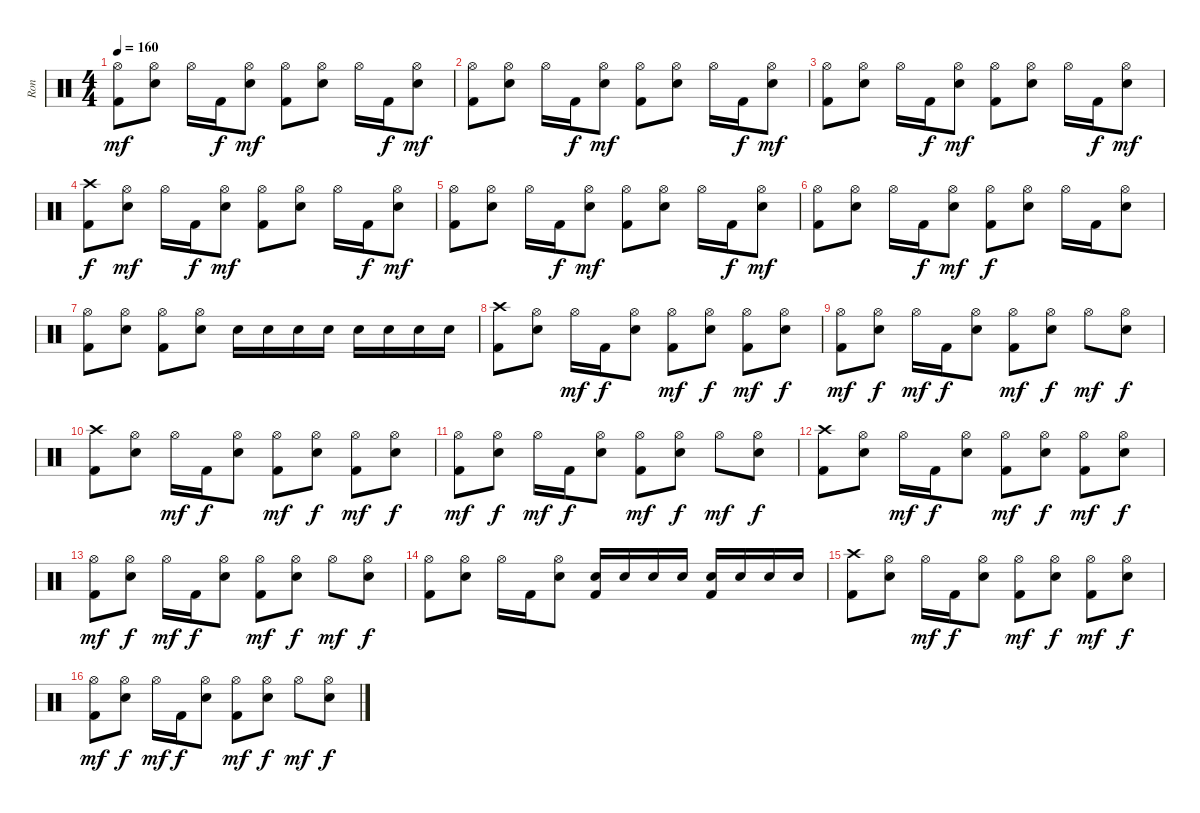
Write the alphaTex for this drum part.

\track ("Ron" "Ron") {instrument percussion}
\staff {score}
\articulation defaults
\ts (4 4)
\tempo 160
\clef neutral
\ks c
("Hi-Hat (open)" "Kick (hit) 2").8{dy mf} ("Hi-Hat (open)" "Electric Snare (hit)").8 "Hi-Hat (open)".16 "Kick (hit) 2".16{dy f} ("Hi-Hat (open)" "Electric Snare (hit)").8{dy mf} ("Hi-Hat (open)" "Kick (hit) 2").8 ("Hi-Hat (open)" "Electric Snare (hit)").8 "Hi-Hat (open)".16 "Kick (hit) 2".16{dy f} ("Hi-Hat (open)" "Electric Snare (hit)").8{dy mf} |
("Hi-Hat (open)" "Kick (hit) 2").8 ("Hi-Hat (open)" "Electric Snare (hit)").8 "Hi-Hat (open)".16 "Kick (hit) 2".16{dy f} ("Hi-Hat (open)" "Electric Snare (hit)").8{dy mf} ("Hi-Hat (open)" "Kick (hit) 2").8 ("Hi-Hat (open)" "Electric Snare (hit)").8 "Hi-Hat (open)".16 "Kick (hit) 2".16{dy f} ("Hi-Hat (open)" "Electric Snare (hit)").8{dy mf} |
("Hi-Hat (open)" "Kick (hit) 2").8 ("Hi-Hat (open)" "Electric Snare (hit)").8 "Hi-Hat (open)".16 "Kick (hit) 2".16{dy f} ("Hi-Hat (open)" "Electric Snare (hit)").8{dy mf} ("Hi-Hat (open)" "Kick (hit) 2").8 ("Hi-Hat (open)" "Electric Snare (hit)").8 "Hi-Hat (open)".16 "Kick (hit) 2".16{dy f} ("Hi-Hat (open)" "Electric Snare (hit)").8{dy mf} |
("Crash high (hit)" "Kick (hit) 2").8{dy f} ("Hi-Hat (open)" "Electric Snare (hit)").8{dy mf} "Hi-Hat (open)".16 "Kick (hit) 2".16{dy f} ("Hi-Hat (open)" "Electric Snare (hit)").8{dy mf} ("Hi-Hat (open)" "Kick (hit) 2").8 ("Hi-Hat (open)" "Electric Snare (hit)").8 "Hi-Hat (open)".16 "Kick (hit) 2".16{dy f} ("Hi-Hat (open)" "Electric Snare (hit)").8{dy mf} |
("Hi-Hat (open)" "Kick (hit) 2").8 ("Hi-Hat (open)" "Electric Snare (hit)").8 "Hi-Hat (open)".16 "Kick (hit) 2".16{dy f} ("Hi-Hat (open)" "Electric Snare (hit)").8{dy mf} ("Hi-Hat (open)" "Kick (hit) 2").8 ("Hi-Hat (open)" "Electric Snare (hit)").8 "Hi-Hat (open)".16 "Kick (hit) 2".16{dy f} ("Hi-Hat (open)" "Electric Snare (hit)").8{dy mf} |
("Hi-Hat (open)" "Kick (hit) 2").8 ("Hi-Hat (open)" "Electric Snare (hit)").8 "Hi-Hat (open)".16 "Kick (hit) 2".16{dy f} ("Hi-Hat (open)" "Electric Snare (hit)").8{dy mf} ("Hi-Hat (open)" "Kick (hit) 2").8{dy f} ("Hi-Hat (open)" "Electric Snare (hit)").8 "Hi-Hat (open)".16 "Kick (hit) 2".16 ("Hi-Hat (open)" "Electric Snare (hit)").8 |
("Hi-Hat (open)" "Kick (hit) 2").8 ("Hi-Hat (open)" "Electric Snare (hit)").8 ("Hi-Hat (open)" "Kick (hit) 2").8 ("Hi-Hat (open)" "Electric Snare (hit)").8 "Electric Snare (hit)".16 "Electric Snare (hit)".16 "Electric Snare (hit)".16 "Electric Snare (hit)".16 "Electric Snare (hit)".16 "Electric Snare (hit)".16 "Electric Snare (hit)".16 "Electric Snare (hit)".16 |
("Crash high (hit)" "Kick (hit) 2").8 ("Hi-Hat (open)" "Electric Snare (hit)").8 "Hi-Hat (open)".16{dy mf} "Kick (hit) 2".16{dy f} ("Hi-Hat (open)" "Electric Snare (hit)").8 ("Hi-Hat (open)" "Kick (hit) 2").8{dy mf} ("Hi-Hat (open)" "Electric Snare (hit)").8{dy f} ("Hi-Hat (open)" "Kick (hit) 2").8{dy mf} ("Hi-Hat (open)" "Electric Snare (hit)").8{dy f} |
("Hi-Hat (open)" "Kick (hit) 2").8{dy mf} ("Hi-Hat (open)" "Electric Snare (hit)").8{dy f} "Hi-Hat (open)".16{dy mf} "Kick (hit) 2".16{dy f} ("Hi-Hat (open)" "Electric Snare (hit)").8 ("Hi-Hat (open)" "Kick (hit) 2").8{dy mf} ("Hi-Hat (open)" "Electric Snare (hit)").8{dy f} "Hi-Hat (open)".8{dy mf} ("Hi-Hat (open)" "Electric Snare (hit)").8{dy f} |
("Crash high (hit)" "Kick (hit) 2").8 ("Hi-Hat (open)" "Electric Snare (hit)").8 "Hi-Hat (open)".16{dy mf} "Kick (hit) 2".16{dy f} ("Hi-Hat (open)" "Electric Snare (hit)").8 ("Hi-Hat (open)" "Kick (hit) 2").8{dy mf} ("Hi-Hat (open)" "Electric Snare (hit)").8{dy f} ("Hi-Hat (open)" "Kick (hit) 2").8{dy mf} ("Hi-Hat (open)" "Electric Snare (hit)").8{dy f} |
("Hi-Hat (open)" "Kick (hit) 2").8{dy mf} ("Hi-Hat (open)" "Electric Snare (hit)").8{dy f} "Hi-Hat (open)".16{dy mf} "Kick (hit) 2".16{dy f} ("Hi-Hat (open)" "Electric Snare (hit)").8 ("Hi-Hat (open)" "Kick (hit) 2").8{dy mf} ("Hi-Hat (open)" "Electric Snare (hit)").8{dy f} "Hi-Hat (open)".8{dy mf} ("Hi-Hat (open)" "Electric Snare (hit)").8{dy f} |
("Crash high (hit)" "Kick (hit) 2").8 ("Hi-Hat (open)" "Electric Snare (hit)").8 "Hi-Hat (open)".16{dy mf} "Kick (hit) 2".16{dy f} ("Hi-Hat (open)" "Electric Snare (hit)").8 ("Hi-Hat (open)" "Kick (hit) 2").8{dy mf} ("Hi-Hat (open)" "Electric Snare (hit)").8{dy f} ("Hi-Hat (open)" "Kick (hit) 2").8{dy mf} ("Hi-Hat (open)" "Electric Snare (hit)").8{dy f} |
("Hi-Hat (open)" "Kick (hit) 2").8{dy mf} ("Hi-Hat (open)" "Electric Snare (hit)").8{dy f} "Hi-Hat (open)".16{dy mf} "Kick (hit) 2".16{dy f} ("Hi-Hat (open)" "Electric Snare (hit)").8 ("Hi-Hat (open)" "Kick (hit) 2").8{dy mf} ("Hi-Hat (open)" "Electric Snare (hit)").8{dy f} "Hi-Hat (open)".8{dy mf} ("Hi-Hat (open)" "Electric Snare (hit)").8{dy f} |
("Hi-Hat (open)" "Kick (hit) 2").8 ("Hi-Hat (open)" "Electric Snare (hit)").8 "Hi-Hat (open)".16 "Kick (hit) 2".16 ("Hi-Hat (open)" "Electric Snare (hit)").8 ("Electric Snare (hit)" "Kick (hit) 2").16 "Electric Snare (hit)".16 "Electric Snare (hit)".16 "Electric Snare (hit)".16 ("Electric Snare (hit)" "Kick (hit) 2").16 "Electric Snare (hit)".16 "Electric Snare (hit)".16 "Electric Snare (hit)".16 |
("Crash high (hit)" "Kick (hit) 2").8 ("Hi-Hat (open)" "Electric Snare (hit)").8 "Hi-Hat (open)".16{dy mf} "Kick (hit) 2".16{dy f} ("Hi-Hat (open)" "Electric Snare (hit)").8 ("Hi-Hat (open)" "Kick (hit) 2").8{dy mf} ("Hi-Hat (open)" "Electric Snare (hit)").8{dy f} ("Hi-Hat (open)" "Kick (hit) 2").8{dy mf} ("Hi-Hat (open)" "Electric Snare (hit)").8{dy f} |
("Hi-Hat (open)" "Kick (hit) 2").8{dy mf} ("Hi-Hat (open)" "Electric Snare (hit)").8{dy f} "Hi-Hat (open)".16{dy mf} "Kick (hit) 2".16{dy f} ("Hi-Hat (open)" "Electric Snare (hit)").8 ("Hi-Hat (open)" "Kick (hit) 2").8{dy mf} ("Hi-Hat (open)" "Electric Snare (hit)").8{dy f} "Hi-Hat (open)".8{dy mf} ("Hi-Hat (open)" "Electric Snare (hit)").8{dy f}
